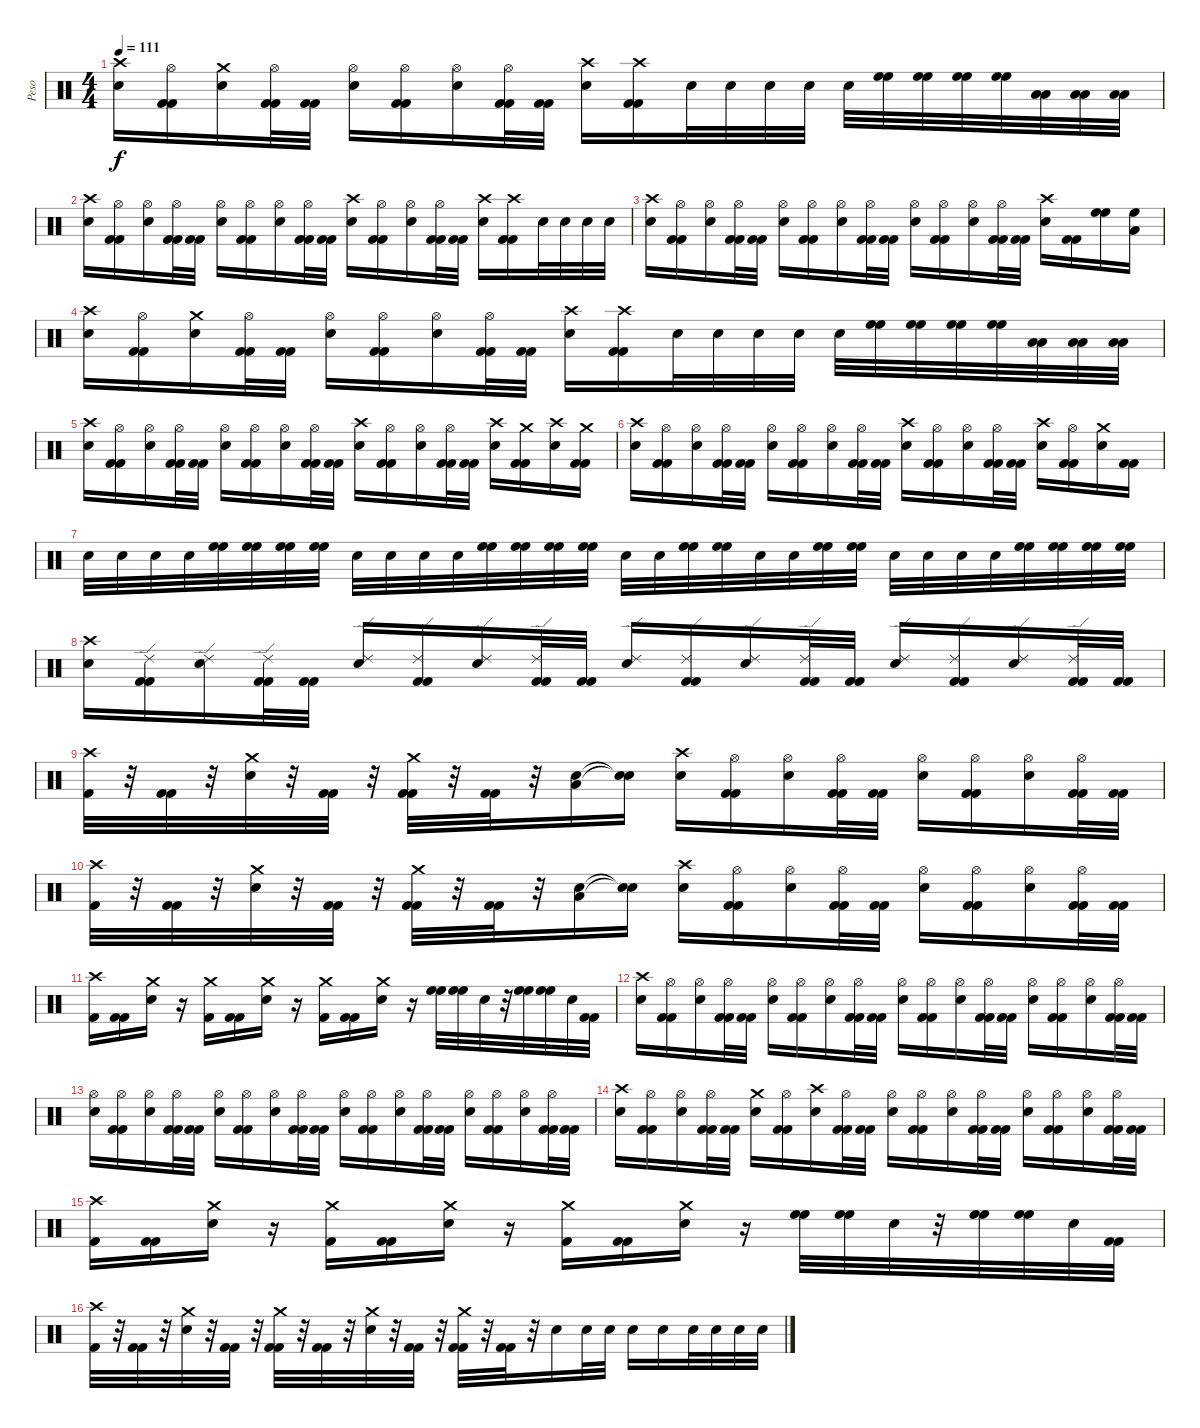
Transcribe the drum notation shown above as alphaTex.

\track ("Peso" "Peso") {instrument percussion}
\staff {score}
\articulation defaults
\ts (4 4)
\tempo 111
\clef neutral
\ks c
("Crash high (hit)" "Snare (hit) 2").16{dy f} ("Hi-Hat (open)" "Kick (hit) 2" "Kick (hit) 2").16 ("Crash medium (hit)" "Snare (hit) 2").16 ("Hi-Hat (open)" "Kick (hit) 2" "Kick (hit) 2").32 ("Kick (hit) 2" "Kick (hit) 2").32 ("Hi-Hat (open)" "Snare (hit) 2").16 ("Hi-Hat (open)" "Kick (hit) 2" "Kick (hit) 2").16 ("Hi-Hat (open)" "Snare (hit) 2").16 ("Hi-Hat (open)" "Kick (hit) 2" "Kick (hit) 2").32 ("Kick (hit) 2" "Kick (hit) 2").32 ("Crash high (hit)" "Snare (hit) 2").16 ("Crash high (hit)" "Kick (hit) 2" "Kick (hit) 2").16 "Snare (hit) 2".32 "Snare (hit) 2".32 "Snare (hit) 2".32 "Snare (hit) 2".32 "Snare (hit) 2".32 ("High Floor Tom (hit)" "High Floor Tom (hit)").32{volume 16} ("High Floor Tom (hit)" "High Floor Tom (hit)").32 ("High Floor Tom (hit)" "High Floor Tom (hit)").32 ("High Floor Tom (hit)" "High Floor Tom (hit)").32 ("Low Floor Tom (hit)" "Low Floor Tom (hit)").32 ("Low Floor Tom (hit)" "Low Floor Tom (hit)").32 ("Low Floor Tom (hit)" "Low Floor Tom (hit)").32 |
("Crash high (hit)" "Snare (hit) 2").16{volume 15} ("Hi-Hat (open)" "Kick (hit) 2" "Kick (hit) 2").16 ("Hi-Hat (open)" "Snare (hit) 2").16 ("Hi-Hat (open)" "Kick (hit) 2" "Kick (hit) 2").32 ("Kick (hit) 2" "Kick (hit) 2").32 ("Hi-Hat (open)" "Snare (hit) 2").16 ("Hi-Hat (open)" "Kick (hit) 2" "Kick (hit) 2").16 ("Hi-Hat (open)" "Snare (hit) 2").16 ("Hi-Hat (open)" "Kick (hit) 2" "Kick (hit) 2").32 ("Kick (hit) 2" "Kick (hit) 2").32 ("Crash high (hit)" "Snare (hit) 2").16 ("Hi-Hat (open)" "Kick (hit) 2" "Kick (hit) 2").16 ("Hi-Hat (open)" "Snare (hit) 2").16 ("Hi-Hat (open)" "Kick (hit) 2" "Kick (hit) 2").32 ("Kick (hit) 2" "Kick (hit) 2").32 ("Crash high (hit)" "Snare (hit) 2").16 ("Crash high (hit)" "Kick (hit) 2" "Kick (hit) 2").16 "Snare (hit) 2".32 "Snare (hit) 2".32 "Snare (hit) 2".32 "Snare (hit) 2".32 |
("Crash high (hit)" "Snare (hit) 2").16 ("Hi-Hat (open)" "Kick (hit) 2" "Kick (hit) 2").16 ("Hi-Hat (open)" "Snare (hit) 2").16 ("Hi-Hat (open)" "Kick (hit) 2" "Kick (hit) 2").32 ("Kick (hit) 2" "Kick (hit) 2").32 ("Hi-Hat (open)" "Snare (hit) 2").16 ("Hi-Hat (open)" "Kick (hit) 2" "Kick (hit) 2").16 ("Hi-Hat (open)" "Snare (hit) 2").16 ("Hi-Hat (open)" "Kick (hit) 2" "Kick (hit) 2").32 ("Kick (hit) 2" "Kick (hit) 2").32 ("Hi-Hat (open)" "Snare (hit) 2").16 ("Hi-Hat (open)" "Kick (hit) 2" "Kick (hit) 2").16 ("Hi-Hat (open)" "Snare (hit) 2").16 ("Hi-Hat (open)" "Kick (hit) 2" "Kick (hit) 2").32 ("Kick (hit) 2" "Kick (hit) 2").32 ("Crash high (hit)" "Snare (hit) 2").16 ("Kick (hit) 2" "Kick (hit) 2").16 ("High Floor Tom (hit)" "High Floor Tom (hit)").16{volume 16} ("High Floor Tom (hit)" "Low Floor Tom (hit)").16 |
("Crash high (hit)" "Snare (hit) 2").16{volume 15} ("Hi-Hat (open)" "Kick (hit) 2" "Kick (hit) 2").16 ("Crash medium (hit)" "Snare (hit) 2").16 ("Hi-Hat (open)" "Kick (hit) 2" "Kick (hit) 2").32 ("Kick (hit) 2" "Kick (hit) 2").32 ("Hi-Hat (open)" "Snare (hit) 2").16 ("Hi-Hat (open)" "Kick (hit) 2" "Kick (hit) 2").16 ("Hi-Hat (open)" "Snare (hit) 2").16 ("Hi-Hat (open)" "Kick (hit) 2" "Kick (hit) 2").32 ("Kick (hit) 2" "Kick (hit) 2").32 ("Crash high (hit)" "Snare (hit) 2").16 ("Crash high (hit)" "Kick (hit) 2" "Kick (hit) 2").16 "Snare (hit) 2".32 "Snare (hit) 2".32 "Snare (hit) 2".32 "Snare (hit) 2".32 "Snare (hit) 2".32 ("High Floor Tom (hit)" "High Floor Tom (hit)").32{volume 16} ("High Floor Tom (hit)" "High Floor Tom (hit)").32 ("High Floor Tom (hit)" "High Floor Tom (hit)").32 ("High Floor Tom (hit)" "High Floor Tom (hit)").32 ("Low Floor Tom (hit)" "Low Floor Tom (hit)").32 ("Low Floor Tom (hit)" "Low Floor Tom (hit)").32 ("Low Floor Tom (hit)" "Low Floor Tom (hit)").32 |
("Crash high (hit)" "Snare (hit) 2").16{volume 15} ("Hi-Hat (open)" "Kick (hit) 2" "Kick (hit) 2").16 ("Hi-Hat (open)" "Snare (hit) 2").16 ("Hi-Hat (open)" "Kick (hit) 2" "Kick (hit) 2").32 ("Kick (hit) 2" "Kick (hit) 2").32 ("Hi-Hat (open)" "Snare (hit) 2").16 ("Hi-Hat (open)" "Kick (hit) 2" "Kick (hit) 2").16 ("Hi-Hat (open)" "Snare (hit) 2").16 ("Hi-Hat (open)" "Kick (hit) 2" "Kick (hit) 2").32 ("Kick (hit) 2" "Kick (hit) 2").32 ("Crash high (hit)" "Snare (hit) 2").16 ("Hi-Hat (open)" "Kick (hit) 2" "Kick (hit) 2").16 ("Hi-Hat (open)" "Snare (hit) 2").16 ("Hi-Hat (open)" "Kick (hit) 2" "Kick (hit) 2").32 ("Kick (hit) 2" "Kick (hit) 2").32 ("Crash high (hit)" "Snare (hit) 2").16 ("Crash medium (hit)" "Kick (hit) 2" "Kick (hit) 2").16 ("Crash high (hit)" "Snare (hit) 2").16 ("Crash medium (hit)" "Kick (hit) 2" "Kick (hit) 2").16 |
("Crash high (hit)" "Snare (hit) 2").16 ("Hi-Hat (open)" "Kick (hit) 2" "Kick (hit) 2").16 ("Hi-Hat (open)" "Snare (hit) 2").16 ("Hi-Hat (open)" "Kick (hit) 2" "Kick (hit) 2").32 ("Kick (hit) 2" "Kick (hit) 2").32 ("Hi-Hat (open)" "Snare (hit) 2").16 ("Hi-Hat (open)" "Kick (hit) 2" "Kick (hit) 2").16 ("Hi-Hat (open)" "Snare (hit) 2").16 ("Hi-Hat (open)" "Kick (hit) 2" "Kick (hit) 2").32 ("Kick (hit) 2" "Kick (hit) 2").32 ("Crash high (hit)" "Snare (hit) 2").16 ("Hi-Hat (open)" "Kick (hit) 2" "Kick (hit) 2").16 ("Hi-Hat (open)" "Snare (hit) 2").16 ("Hi-Hat (open)" "Kick (hit) 2" "Kick (hit) 2").32 ("Kick (hit) 2" "Kick (hit) 2").32 ("Crash high (hit)" "Snare (hit) 2").16 ("Hi-Hat (open)" "Kick (hit) 2" "Kick (hit) 2").16 ("Crash medium (hit)" "Snare (hit) 2").16 ("Kick (hit) 2" "Kick (hit) 2").16 |
"Snare (hit) 2".32 "Snare (hit) 2".32 "Snare (hit) 2".32 "Snare (hit) 2".32 ("High Floor Tom (hit)" "High Floor Tom (hit)").32{volume 16} ("High Floor Tom (hit)" "High Floor Tom (hit)").32 ("High Floor Tom (hit)" "High Floor Tom (hit)").32 ("High Floor Tom (hit)" "High Floor Tom (hit)").32 "Snare (hit) 2".32 "Snare (hit) 2".32 "Snare (hit) 2".32 "Snare (hit) 2".32 ("High Floor Tom (hit)" "High Floor Tom (hit)").32{volume 16} ("High Floor Tom (hit)" "High Floor Tom (hit)").32 ("High Floor Tom (hit)" "High Floor Tom (hit)").32 ("High Floor Tom (hit)" "High Floor Tom (hit)").32 "Snare (hit) 2".32 "Snare (hit) 2".32 ("High Floor Tom (hit)" "High Floor Tom (hit)").32{volume 16} ("High Floor Tom (hit)" "High Floor Tom (hit)").32 "Snare (hit) 2".32 "Snare (hit) 2".32 ("High Floor Tom (hit)" "High Floor Tom (hit)").32{volume 16} ("High Floor Tom (hit)" "High Floor Tom (hit)").32 "Snare (hit) 2".32 "Snare (hit) 2".32 "Snare (hit) 2".32 "Snare (hit) 2".32 ("High Floor Tom (hit)" "High Floor Tom (hit)").32{volume 16} ("High Floor Tom (hit)" "High Floor Tom (hit)").32 ("High Floor Tom (hit)" "High Floor Tom (hit)").32 ("High Floor Tom (hit)" "High Floor Tom (hit)").32 |
("Crash high (hit)" "Snare (hit) 2").16{volume 15} ("Ride (edge) 2" "Kick (hit) 2" "Kick (hit) 2").16 ("Ride (edge) 2" "Snare (hit) 2").16 ("Ride (edge) 2" "Kick (hit) 2" "Kick (hit) 2").32 ("Kick (hit) 2" "Kick (hit) 2").32 ("Ride (edge) 2" "Snare (hit) 2").16 ("Ride (edge) 2" "Kick (hit) 2" "Kick (hit) 2").16 ("Ride (edge) 2" "Snare (hit) 2").16 ("Ride (edge) 2" "Kick (hit) 2" "Kick (hit) 2").32 ("Kick (hit) 2" "Kick (hit) 2").32 ("Ride (edge) 2" "Snare (hit) 2").16 ("Ride (edge) 2" "Kick (hit) 2" "Kick (hit) 2").16 ("Ride (edge) 2" "Snare (hit) 2").16 ("Ride (edge) 2" "Kick (hit) 2" "Kick (hit) 2").32 ("Kick (hit) 2" "Kick (hit) 2").32 ("Ride (edge) 2" "Snare (hit) 2").16 ("Ride (edge) 2" "Kick (hit) 2" "Kick (hit) 2").16 ("Ride (edge) 2" "Snare (hit) 2").16 ("Ride (edge) 2" "Kick (hit) 2" "Kick (hit) 2").32 ("Kick (hit) 2" "Kick (hit) 2").32 |
("Crash high (hit)" "Kick (hit) 2").32 r.32 ("Kick (hit) 2" "Kick (hit) 2").32 r.32 ("Crash medium (hit)" "Snare (hit) 2").32 r.32 ("Kick (hit) 2" "Kick (hit) 2").32 r.32 ("Crash medium (hit)" "Kick (hit) 2" "Kick (hit) 2").32 r.32 ("Kick (hit) 2" "Kick (hit) 2").32 r.32 ("Low Floor Tom (hit)" "Snare (hit) 2").16 ("Snare (hit)"{t} "Snare (hit)"{t}).16 ("Crash high (hit)" "Snare (hit) 2").16 ("Hi-Hat (open)" "Kick (hit) 2" "Kick (hit) 2").16 ("Hi-Hat (open)" "Snare (hit) 2").16 ("Hi-Hat (open)" "Kick (hit) 2" "Kick (hit) 2").32 ("Kick (hit) 2" "Kick (hit) 2").32 ("Hi-Hat (open)" "Snare (hit) 2").16 ("Hi-Hat (open)" "Kick (hit) 2" "Kick (hit) 2").16 ("Hi-Hat (open)" "Snare (hit) 2").16 ("Hi-Hat (open)" "Kick (hit) 2" "Kick (hit) 2").32 ("Kick (hit) 2" "Kick (hit) 2").32 |
("Crash high (hit)" "Kick (hit) 2").32 r.32 ("Kick (hit) 2" "Kick (hit) 2").32 r.32 ("Crash medium (hit)" "Snare (hit) 2").32 r.32 ("Kick (hit) 2" "Kick (hit) 2").32 r.32 ("Crash medium (hit)" "Kick (hit) 2" "Kick (hit) 2").32 r.32 ("Kick (hit) 2" "Kick (hit) 2").32 r.32 ("Low Floor Tom (hit)" "Snare (hit) 2").16 ("Snare (hit)"{t} "Snare (hit)"{t}).16 ("Crash high (hit)" "Snare (hit) 2").16 ("Hi-Hat (open)" "Kick (hit) 2" "Kick (hit) 2").16 ("Hi-Hat (open)" "Snare (hit) 2").16 ("Hi-Hat (open)" "Kick (hit) 2" "Kick (hit) 2").32 ("Kick (hit) 2" "Kick (hit) 2").32 ("Hi-Hat (open)" "Snare (hit) 2").16 ("Hi-Hat (open)" "Kick (hit) 2" "Kick (hit) 2").16 ("Hi-Hat (open)" "Snare (hit) 2").16 ("Hi-Hat (open)" "Kick (hit) 2" "Kick (hit) 2").32 ("Kick (hit) 2" "Kick (hit) 2").32 |
("Crash high (hit)" "Kick (hit) 2").16 ("Kick (hit) 2" "Kick (hit) 2").16 ("Crash medium (hit)" "Snare (hit) 2").16 r.16 ("Crash medium (hit)" "Kick (hit) 2").16 ("Kick (hit) 2" "Kick (hit) 2").16 ("Crash medium (hit)" "Snare (hit) 2").16 r.16 ("Crash medium (hit)" "Kick (hit) 2").16 ("Kick (hit) 2" "Kick (hit) 2").16 ("Crash medium (hit)" "Snare (hit) 2").16 r.16 ("High Floor Tom (hit)" "High Floor Tom (hit)").32{volume 16} ("High Floor Tom (hit)" "High Floor Tom (hit)").32 "Snare (hit) 2".32 r.32 ("High Floor Tom (hit)" "High Floor Tom (hit)").32{volume 16} ("High Floor Tom (hit)" "High Floor Tom (hit)").32 "Snare (hit) 2".32 ("Kick (hit) 2" "Kick (hit) 2").32 |
("Crash high (hit)" "Snare (hit) 2").16{volume 15} ("Hi-Hat (open)" "Kick (hit) 2" "Kick (hit) 2").16 ("Hi-Hat (open)" "Snare (hit) 2").16 ("Hi-Hat (open)" "Kick (hit) 2" "Kick (hit) 2").32 ("Kick (hit) 2" "Kick (hit) 2").32 ("Hi-Hat (open)" "Snare (hit) 2").16 ("Hi-Hat (open)" "Kick (hit) 2" "Kick (hit) 2").16 ("Hi-Hat (open)" "Snare (hit) 2").16 ("Hi-Hat (open)" "Kick (hit) 2" "Kick (hit) 2").32 ("Kick (hit) 2" "Kick (hit) 2").32 ("Hi-Hat (open)" "Snare (hit) 2").16 ("Hi-Hat (open)" "Kick (hit) 2" "Kick (hit) 2").16 ("Hi-Hat (open)" "Snare (hit) 2").16 ("Hi-Hat (open)" "Kick (hit) 2" "Kick (hit) 2").32 ("Kick (hit) 2" "Kick (hit) 2").32 ("Hi-Hat (open)" "Snare (hit) 2").16 ("Hi-Hat (open)" "Kick (hit) 2" "Kick (hit) 2").16 ("Hi-Hat (open)" "Snare (hit) 2").16 ("Hi-Hat (open)" "Kick (hit) 2" "Kick (hit) 2").32 ("Kick (hit) 2" "Kick (hit) 2").32 |
("Hi-Hat (open)" "Snare (hit) 2").16 ("Hi-Hat (open)" "Kick (hit) 2" "Kick (hit) 2").16 ("Hi-Hat (open)" "Snare (hit) 2").16 ("Hi-Hat (open)" "Kick (hit) 2" "Kick (hit) 2").32 ("Kick (hit) 2" "Kick (hit) 2").32 ("Hi-Hat (open)" "Snare (hit) 2").16 ("Hi-Hat (open)" "Kick (hit) 2" "Kick (hit) 2").16 ("Hi-Hat (open)" "Snare (hit) 2").16 ("Hi-Hat (open)" "Kick (hit) 2" "Kick (hit) 2").32 ("Kick (hit) 2" "Kick (hit) 2").32 ("Hi-Hat (open)" "Snare (hit) 2").16 ("Hi-Hat (open)" "Kick (hit) 2" "Kick (hit) 2").16 ("Hi-Hat (open)" "Snare (hit) 2").16 ("Hi-Hat (open)" "Kick (hit) 2" "Kick (hit) 2").32 ("Kick (hit) 2" "Kick (hit) 2").32 ("Hi-Hat (open)" "Snare (hit) 2").16 ("Hi-Hat (open)" "Kick (hit) 2" "Kick (hit) 2").16 ("Hi-Hat (open)" "Snare (hit) 2").16 ("Hi-Hat (open)" "Kick (hit) 2" "Kick (hit) 2").32 ("Kick (hit) 2" "Kick (hit) 2").32 |
("Crash high (hit)" "Snare (hit) 2").16 ("Hi-Hat (open)" "Kick (hit) 2" "Kick (hit) 2").16 ("Hi-Hat (open)" "Snare (hit) 2").16 ("Hi-Hat (open)" "Kick (hit) 2" "Kick (hit) 2").32 ("Kick (hit) 2" "Kick (hit) 2").32 ("Crash medium (hit)" "Snare (hit) 2").16 ("Hi-Hat (open)" "Kick (hit) 2" "Kick (hit) 2").16 ("Crash high (hit)" "Snare (hit) 2").16 ("Hi-Hat (open)" "Kick (hit) 2" "Kick (hit) 2").32 ("Kick (hit) 2" "Kick (hit) 2").32 ("Hi-Hat (open)" "Snare (hit) 2").16 ("Hi-Hat (open)" "Kick (hit) 2" "Kick (hit) 2").16 ("Hi-Hat (open)" "Snare (hit) 2").16 ("Hi-Hat (open)" "Kick (hit) 2" "Kick (hit) 2").32 ("Kick (hit) 2" "Kick (hit) 2").32 ("Hi-Hat (open)" "Snare (hit) 2").16 ("Hi-Hat (open)" "Kick (hit) 2" "Kick (hit) 2").16 ("Hi-Hat (open)" "Snare (hit) 2").16 ("Hi-Hat (open)" "Kick (hit) 2" "Kick (hit) 2").32 ("Kick (hit) 2" "Kick (hit) 2").32 |
("Crash high (hit)" "Kick (hit) 2").16 ("Kick (hit) 2" "Kick (hit) 2").16 ("Crash medium (hit)" "Snare (hit) 2").16 r.16 ("Crash medium (hit)" "Kick (hit) 2").16 ("Kick (hit) 2" "Kick (hit) 2").16 ("Crash medium (hit)" "Snare (hit) 2").16 r.16 ("Crash medium (hit)" "Kick (hit) 2").16 ("Kick (hit) 2" "Kick (hit) 2").16 ("Crash medium (hit)" "Snare (hit) 2").16 r.16 ("High Floor Tom (hit)" "High Floor Tom (hit)").32{volume 16} ("High Floor Tom (hit)" "High Floor Tom (hit)").32 "Snare (hit) 2".32 r.32 ("High Floor Tom (hit)" "High Floor Tom (hit)").32{volume 16} ("High Floor Tom (hit)" "High Floor Tom (hit)").32 "Snare (hit) 2".32 ("Kick (hit) 2" "Kick (hit) 2").32 |
("Crash high (hit)" "Kick (hit) 2").32{volume 15} r.32 ("Kick (hit) 2" "Kick (hit) 2").32 r.32 ("Crash medium (hit)" "Snare (hit) 2").32 r.32 ("Kick (hit) 2" "Kick (hit) 2").32 r.32 ("Crash medium (hit)" "Kick (hit) 2" "Kick (hit) 2").32 r.32 ("Kick (hit) 2" "Kick (hit) 2").32 r.32 ("Crash medium (hit)" "Snare (hit) 2").32 r.32 ("Kick (hit) 2" "Kick (hit) 2").32 r.32 ("Crash medium (hit)" "Kick (hit) 2" "Kick (hit) 2").32 r.32 ("Kick (hit) 2" "Kick (hit) 2").32 r.32 "Snare (hit) 2".16 "Snare (hit) 2".32 "Snare (hit) 2".32 "Snare (hit) 2".16 "Snare (hit) 2".16 "Snare (hit) 2".32 "Snare (hit) 2".32 "Snare (hit) 2".32 "Snare (hit) 2".32
